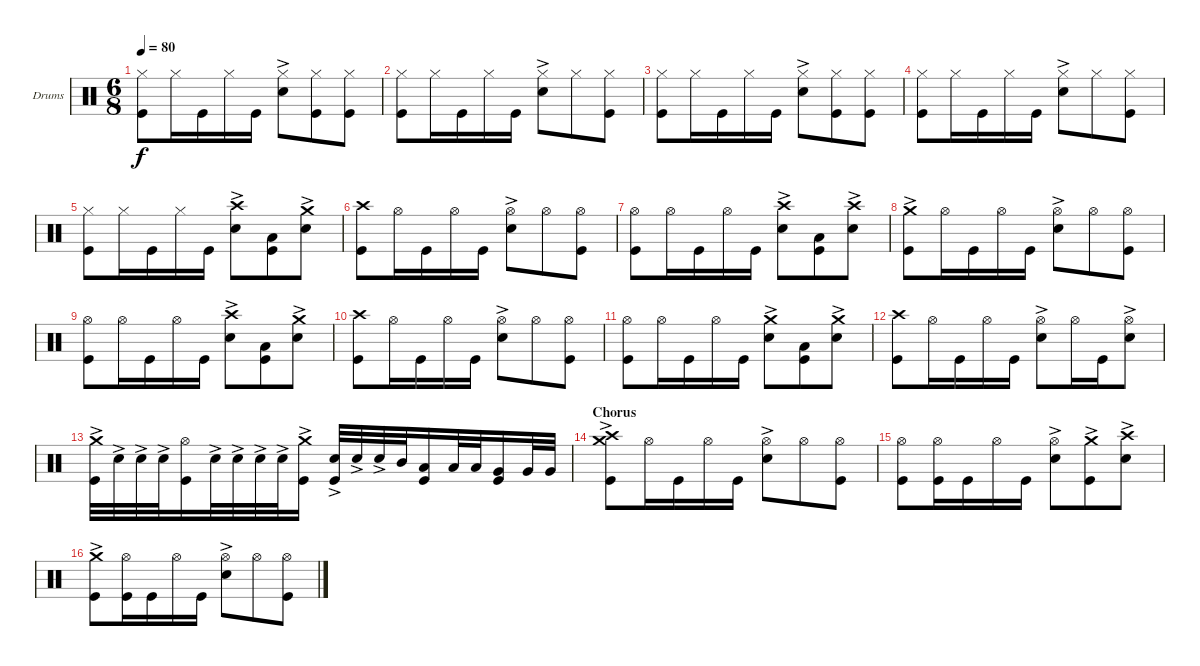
\defaultSystemsLayout 4
\bracketExtendMode groupsimilarinstruments
\firstSystemTrackNameOrientation horizontal
\otherSystemsTrackNameOrientation horizontal
\track ("Drumkit" "Drums") {instrument percussion}
\staff {score}
\articulation defaults
\ts (6 8)
\tempo 80
\clef neutral
\scale
0.333333
\ks c
("Hi-Hat (closed)" "Kick (hit)").8{dy f} "Hi-Hat (closed)".16 "Kick (hit)".16 "Hi-Hat (closed)".16 "Kick (hit)".16 ("Hi-Hat (closed)" "Snare (hit) 2"{ac}).8 ("Hi-Hat (closed)" "Kick (hit)").8 ("Hi-Hat (closed)" "Kick (hit)").8 |
\scale
0.333333 ("Kick (hit)" "Hi-Hat (closed)").8 "Hi-Hat (closed)".16 "Kick (hit)".16 "Hi-Hat (closed)".16 "Kick (hit)".16 ("Hi-Hat (closed)" "Snare (hit) 2"{ac}).8 "Hi-Hat (closed)".8 ("Hi-Hat (closed)" "Kick (hit)").8 |
\scale
0.333333 ("Hi-Hat (closed)" "Kick (hit)").8 "Hi-Hat (closed)".16 "Kick (hit)".16 "Hi-Hat (closed)".16 "Kick (hit)".16 ("Hi-Hat (closed)" "Snare (hit) 2"{ac}).8 ("Hi-Hat (closed)" "Kick (hit)").8 ("Hi-Hat (closed)" "Kick (hit)").8 |
\scale
0.333333 ("Kick (hit)" "Hi-Hat (closed)").8 "Hi-Hat (closed)".16 "Kick (hit)".16 "Hi-Hat (closed)".16 "Kick (hit)".16 ("Hi-Hat (closed)" "Snare (hit) 2"{ac}).8 "Hi-Hat (closed)".8 ("Hi-Hat (closed)" "Kick (hit)").8 |
\scale
0.333333 ("Kick (hit)" "Hi-Hat (closed)").8 "Hi-Hat (closed)".16 "Kick (hit)".16 "Hi-Hat (closed)".16 "Kick (hit)".16 ("Snare (hit) 2"{ac} "Crash high (hit)").8 ("Low Tom (hit)" "Kick (hit)").8 ("Snare (hit) 2"{ac} "Crash medium (hit)"{ac}).8 |
\scale
0.333333 ("Crash high (hit)" "Kick (hit)").8 "Hi-Hat (open)".16 "Kick (hit)".16 "Hi-Hat (open)".16 "Kick (hit)".16 ("Hi-Hat (open)" "Snare (hit) 2"{ac}).8 "Hi-Hat (open)".8 ("Hi-Hat (open)" "Kick (hit)").8 |
\scale
0.333333 ("Hi-Hat (open)" "Kick (hit)").8 "Hi-Hat (open)".16 "Kick (hit)".16 "Hi-Hat (open)".16 "Kick (hit)".16 ("Snare (hit) 2"{ac} "Crash high (hit)").8 ("Low Tom (hit)" "Kick (hit)").8 ("Snare (hit) 2"{ac} "Crash high (hit)").8 |
\scale
0.333333 ("Crash medium (hit)"{ac} "Kick (hit)").8 "Hi-Hat (open)".16 "Kick (hit)".16 "Hi-Hat (open)".16 "Kick (hit)".16 ("Hi-Hat (open)" "Snare (hit) 2"{ac}).8 "Hi-Hat (open)".8 ("Hi-Hat (open)" "Kick (hit)").8 |
\scale
0.333333 ("Hi-Hat (open)" "Kick (hit)").8 "Hi-Hat (open)".16 "Kick (hit)".16 "Hi-Hat (open)".16 "Kick (hit)".16 ("Snare (hit) 2"{ac} "Crash high (hit)").8 ("Low Tom (hit)" "Kick (hit)").8 ("Crash medium (hit)"{ac} "Snare (hit) 2"{ac}).8 |
\scale
0.333333 ("Crash high (hit)" "Kick (hit)").8 "Hi-Hat (open)".16 "Kick (hit)".16 "Hi-Hat (open)".16 "Kick (hit)".16 ("Hi-Hat (open)" "Snare (hit) 2"{ac}).8 "Hi-Hat (open)".8 ("Hi-Hat (open)" "Kick (hit)").8 |
\scale
0.333333 ("Hi-Hat (open)" "Kick (hit)").8 "Hi-Hat (open)".16 "Kick (hit)".16 "Hi-Hat (open)".16 "Kick (hit)".16 ("Crash medium (hit)"{ac} "Snare (hit) 2"{ac}).8 ("Low Tom (hit)" "Kick (hit)").8 ("Crash medium (hit)"{ac} "Snare (hit) 2"{ac}).8 |
\scale
0.475597 ("Crash high (hit)" "Kick (hit)").8 "Hi-Hat (open)".16 "Kick (hit)".16 "Hi-Hat (open)".16 "Kick (hit)".16 ("Hi-Hat (open)" "Snare (hit) 2"{ac}).8 "Hi-Hat (open)".16 "Kick (hit)".16 ("Hi-Hat (open)" "Snare (hit) 2"{ac}).8 |
\scale
0.524521 ("Crash medium (hit)"{ac} "Kick (hit)").32 "Snare (hit) 2"{ac}.32 "Snare (hit) 2"{ac}.32 "Snare (hit) 2"{ac}.32 ("Hi-Hat (open)" "Kick (hit)").16 "Snare (hit) 2"{ac}.32 "Snare (hit) 2"{ac}.32 "Snare (hit) 2"{ac}.32 "Snare (hit) 2"{ac}.32 ("Crash medium (hit)"{ac} "Kick (hit)").16 ("Snare (hit) 2"{ac} "Kick (hit)").32 "Snare (hit) 2"{ac}.32 "Snare (hit) 2"{ac}.32 "Mid Tom (hit)".32 ("Low Tom (hit)" "Kick (hit)").16 "Low Tom (hit)".32 "Low Tom (hit)".32 ("Very Low Tom (hit)" "Kick (hit)").16 "Very Low Tom (hit)".32 "Very Low Tom (hit)".32 |
\section ("" "Chorus")
("Crash medium (hit)"{ac} "Crash high (hit)" "Kick (hit)").8 "Hi-Hat (open)".16 "Kick (hit)".16 "Hi-Hat (open)".16 "Kick (hit)".16 ("Hi-Hat (open)" "Snare (hit) 2"{ac}).8 "Hi-Hat (open)".8 ("Hi-Hat (open)" "Kick (hit)").8 |
("Hi-Hat (open)" "Kick (hit)").8 ("Hi-Hat (open)" "Kick (hit)").16 "Kick (hit)".16 "Hi-Hat (open)".16 "Kick (hit)".16 ("Snare (hit) 2"{ac} "Hi-Hat (open)").8 ("Kick (hit)" "Crash medium (hit)"{ac}).8 ("Snare (hit) 2"{ac} "Crash high (hit)").8 |
("Crash medium (hit)"{ac} "Kick (hit)").8 ("Hi-Hat (open)" "Kick (hit)").16 "Kick (hit)".16 "Hi-Hat (open)".16 "Kick (hit)".16 ("Hi-Hat (open)" "Snare (hit) 2"{ac}).8 "Hi-Hat (open)".8 ("Hi-Hat (open)" "Kick (hit)").8
